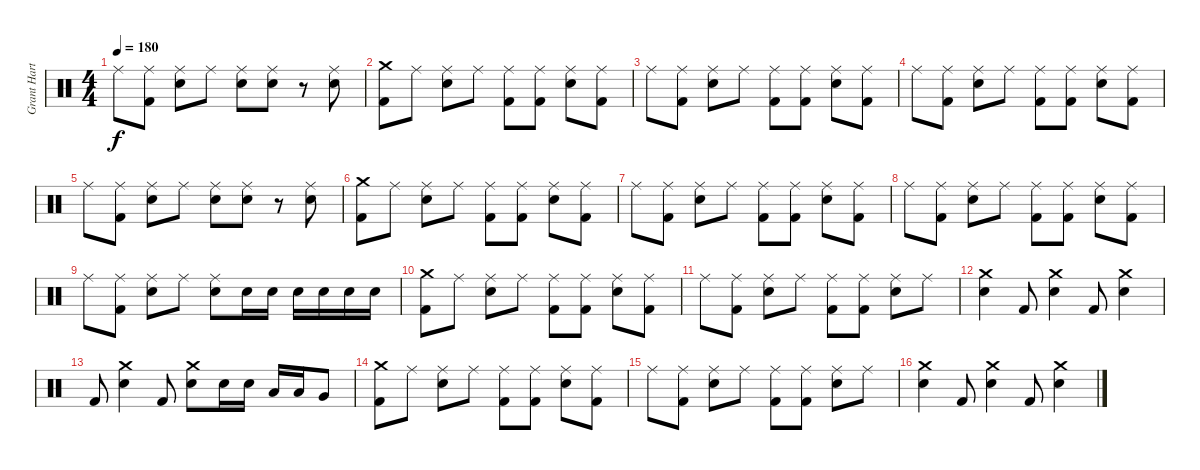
\track ("Grant Hart - Drums" "Grant Hart") {instrument percussion}
\staff {score}
\articulation defaults
\ts (4 4)
\tempo 180
\clef neutral
\ks c "Ride (middle)".8{dy f}
("Ride (middle)" "Kick (hit) 2").8 ("Ride (middle)" "Electric Snare (hit)").8 "Ride (middle)".8 ("Ride (middle)" "Electric Snare (hit)").8 ("Ride (middle)" "Electric Snare (hit)").8 r.8 ("Ride (middle)" "Electric Snare (hit)").8 |
("Crash medium (hit)" "Kick (hit) 2").8 "Ride (middle)".8 ("Ride (middle)" "Electric Snare (hit)").8 "Ride (middle)".8 ("Ride (middle)" "Kick (hit) 2").8 ("Ride (middle)" "Kick (hit) 2").8 ("Ride (middle)" "Electric Snare (hit)").8 ("Ride (middle)" "Kick (hit) 2").8 |
"Ride (middle)".8 ("Ride (middle)" "Kick (hit) 2").8 ("Ride (middle)" "Electric Snare (hit)").8 "Ride (middle)".8 ("Ride (middle)" "Kick (hit) 2").8 ("Ride (middle)" "Kick (hit) 2").8 ("Ride (middle)" "Electric Snare (hit)").8 ("Ride (middle)" "Kick (hit) 2").8 |
"Ride (middle)".8 ("Ride (middle)" "Kick (hit) 2").8 ("Ride (middle)" "Electric Snare (hit)").8 "Ride (middle)".8 ("Ride (middle)" "Kick (hit) 2").8 ("Ride (middle)" "Kick (hit) 2").8 ("Ride (middle)" "Electric Snare (hit)").8 ("Ride (middle)" "Kick (hit) 2").8 |
"Ride (middle)".8 ("Ride (middle)" "Kick (hit) 2").8 ("Ride (middle)" "Electric Snare (hit)").8 "Ride (middle)".8 ("Ride (middle)" "Electric Snare (hit)").8 ("Ride (middle)" "Electric Snare (hit)").8 r.8 ("Ride (middle)" "Electric Snare (hit)").8 |
("Crash medium (hit)" "Kick (hit) 2").8 "Ride (middle)".8 ("Ride (middle)" "Electric Snare (hit)").8 "Ride (middle)".8 ("Ride (middle)" "Kick (hit) 2").8 ("Ride (middle)" "Kick (hit) 2").8 ("Ride (middle)" "Electric Snare (hit)").8 ("Ride (middle)" "Kick (hit) 2").8 |
"Ride (middle)".8 ("Ride (middle)" "Kick (hit) 2").8 ("Ride (middle)" "Electric Snare (hit)").8 "Ride (middle)".8 ("Ride (middle)" "Kick (hit) 2").8 ("Ride (middle)" "Kick (hit) 2").8 ("Ride (middle)" "Electric Snare (hit)").8 ("Ride (middle)" "Kick (hit) 2").8 |
"Ride (middle)".8 ("Ride (middle)" "Kick (hit) 2").8 ("Ride (middle)" "Electric Snare (hit)").8 "Ride (middle)".8 ("Ride (middle)" "Kick (hit) 2").8 ("Ride (middle)" "Kick (hit) 2").8 ("Ride (middle)" "Electric Snare (hit)").8 ("Ride (middle)" "Kick (hit) 2").8 |
"Ride (middle)".8 ("Ride (middle)" "Kick (hit) 2").8 ("Ride (middle)" "Electric Snare (hit)").8 "Ride (middle)".8 ("Ride (middle)" "Electric Snare (hit)").8 "Electric Snare (hit)".16 "Electric Snare (hit)".16 "Electric Snare (hit)".16 "Electric Snare (hit)".16 "Electric Snare (hit)".16 "Electric Snare (hit)".16 |
("Crash medium (hit)" "Kick (hit) 2").8 "Ride (middle)".8 ("Ride (middle)" "Electric Snare (hit)").8 "Ride (middle)".8 ("Ride (middle)" "Kick (hit) 2").8 ("Ride (middle)" "Kick (hit) 2").8 ("Ride (middle)" "Electric Snare (hit)").8 ("Ride (middle)" "Kick (hit) 2").8 |
"Ride (middle)".8 ("Ride (middle)" "Kick (hit) 2").8 ("Ride (middle)" "Electric Snare (hit)").8 "Ride (middle)".8 ("Ride (middle)" "Kick (hit) 2").8 ("Ride (middle)" "Kick (hit) 2").8 ("Ride (middle)" "Electric Snare (hit)").8 "Ride (middle)".8 |
("Crash medium (hit)" "Electric Snare (hit)").4 "Kick (hit) 2".8 ("Crash medium (hit)" "Electric Snare (hit)").4 "Kick (hit) 2".8 ("Crash medium (hit)" "Electric Snare (hit)").4 |
"Kick (hit) 2".8 ("Crash medium (hit)" "Electric Snare (hit)").4 "Kick (hit) 2".8 ("Crash medium (hit)" "Electric Snare (hit)").8 "Electric Snare (hit)".16 "Electric Snare (hit)".16 "Low Tom (hit)".16 "Low Tom (hit)".16 "Very Low Tom (hit)".8 |
("Crash medium (hit)" "Kick (hit) 2").8 "Ride (middle)".8 ("Ride (middle)" "Electric Snare (hit)").8 "Ride (middle)".8 ("Ride (middle)" "Kick (hit) 2").8 ("Ride (middle)" "Kick (hit) 2").8 ("Ride (middle)" "Electric Snare (hit)").8 ("Ride (middle)" "Kick (hit) 2").8 |
"Ride (middle)".8 ("Ride (middle)" "Kick (hit) 2").8 ("Ride (middle)" "Electric Snare (hit)").8 "Ride (middle)".8 ("Ride (middle)" "Kick (hit) 2").8 ("Ride (middle)" "Kick (hit) 2").8 ("Ride (middle)" "Electric Snare (hit)").8 "Ride (middle)".8 |
("Crash medium (hit)" "Electric Snare (hit)").4 "Kick (hit) 2".8 ("Crash medium (hit)" "Electric Snare (hit)").4 "Kick (hit) 2".8 ("Crash medium (hit)" "Electric Snare (hit)").4
